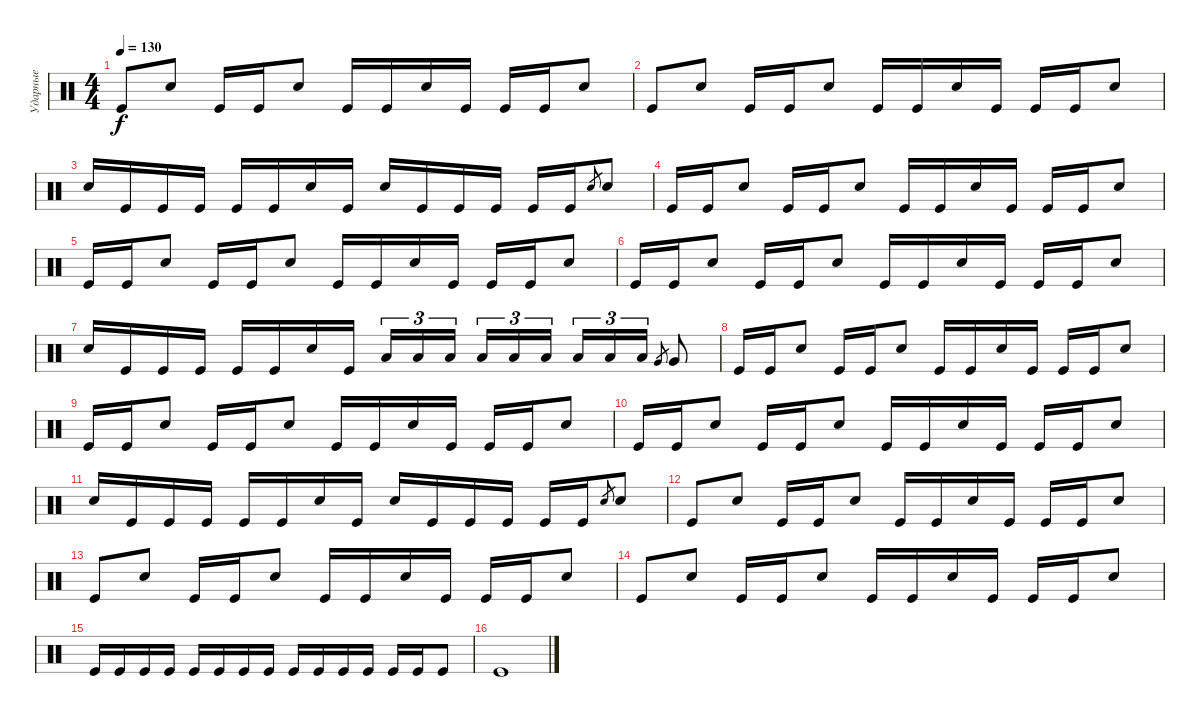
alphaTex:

\track ("Ударные" "Ударные") {instrument percussion}
\staff {score}
\articulation defaults
\ts (4 4)
\tempo 130
\clef neutral
\ks c "Kick (hit)".8{dy f} "Snare (hit) 2".8 "Kick (hit)".16 "Kick (hit)".16 "Snare (hit) 2".8 "Kick (hit)".16 "Kick (hit)".16 "Snare (hit) 2".16 "Kick (hit)".16 "Kick (hit)".16 "Kick (hit)".16 "Snare (hit) 2".8
|
"Kick (hit)".8 "Snare (hit) 2".8 "Kick (hit)".16 "Kick (hit)".16 "Snare (hit) 2".8 "Kick (hit)".16 "Kick (hit)".16 "Snare (hit) 2".16 "Kick (hit)".16 "Kick (hit)".16 "Kick (hit)".16 "Snare (hit) 2".8 |
"Snare (hit) 2".16 "Kick (hit)".16 "Kick (hit)".16 "Kick (hit)".16 "Kick (hit)".16 "Kick (hit)".16 "Snare (hit) 2".16 "Kick (hit)".16 "Snare (hit) 2".16 "Kick (hit)".16 "Kick (hit)".16 "Kick (hit)".16 "Kick (hit)".16 "Kick (hit)".16 "Snare (hit) 2".8{gr} "Snare (hit) 2".8 |
"Kick (hit)".16 "Kick (hit)".16 "Snare (hit) 2".8 "Kick (hit)".16 "Kick (hit)".16 "Snare (hit) 2".8 "Kick (hit)".16 "Kick (hit)".16 "Snare (hit) 2".16 "Kick (hit)".16 "Kick (hit)".16 "Kick (hit)".16 "Snare (hit) 2".8 |
"Kick (hit)".16 "Kick (hit)".16 "Snare (hit) 2".8 "Kick (hit)".16 "Kick (hit)".16 "Snare (hit) 2".8 "Kick (hit)".16 "Kick (hit)".16 "Snare (hit) 2".16 "Kick (hit)".16 "Kick (hit)".16 "Kick (hit)".16 "Snare (hit) 2".8 |
"Kick (hit)".16 "Kick (hit)".16 "Snare (hit) 2".8 "Kick (hit)".16 "Kick (hit)".16 "Snare (hit) 2".8 "Kick (hit)".16 "Kick (hit)".16 "Snare (hit) 2".16 "Kick (hit)".16 "Kick (hit)".16 "Kick (hit)".16 "Snare (hit) 2".8 |
"Snare (hit) 2".16 "Kick (hit)".16 "Kick (hit)".16 "Kick (hit)".16 "Kick (hit)".16 "Kick (hit)".16 "Snare (hit) 2".16 "Kick (hit)".16 "Low Tom (hit)".16{tu (3 2)} "Low Tom (hit)".16{tu (3 2)} "Low Tom (hit)".16{tu (3 2) beam splitsecondary} "Low Tom (hit)".16{tu (3 2)} "Low Tom (hit)".16{tu (3 2)} "Low Tom (hit)".16{tu (3 2)} "Low Tom (hit)".16{tu (3 2)} "Low Tom (hit)".16{tu (3 2)} "Low Tom (hit)".16{tu (3 2)} "Very Low Tom (hit)".8{gr} "Very Low Tom (hit)".8 |
"Kick (hit)".16 "Kick (hit)".16 "Snare (hit) 2".8 "Kick (hit)".16 "Kick (hit)".16 "Snare (hit) 2".8 "Kick (hit)".16 "Kick (hit)".16 "Snare (hit) 2".16 "Kick (hit)".16 "Kick (hit)".16 "Kick (hit)".16 "Snare (hit) 2".8 |
"Kick (hit)".16 "Kick (hit)".16 "Snare (hit) 2".8 "Kick (hit)".16 "Kick (hit)".16 "Snare (hit) 2".8 "Kick (hit)".16 "Kick (hit)".16 "Snare (hit) 2".16 "Kick (hit)".16 "Kick (hit)".16 "Kick (hit)".16 "Snare (hit) 2".8 |
"Kick (hit)".16 "Kick (hit)".16 "Snare (hit) 2".8 "Kick (hit)".16 "Kick (hit)".16 "Snare (hit) 2".8 "Kick (hit)".16 "Kick (hit)".16 "Snare (hit) 2".16 "Kick (hit)".16 "Kick (hit)".16 "Kick (hit)".16 "Snare (hit) 2".8 |
"Snare (hit) 2".16 "Kick (hit)".16 "Kick (hit)".16 "Kick (hit)".16 "Kick (hit)".16 "Kick (hit)".16 "Snare (hit) 2".16 "Kick (hit)".16 "Snare (hit) 2".16 "Kick (hit)".16 "Kick (hit)".16 "Kick (hit)".16 "Kick (hit)".16 "Kick (hit)".16 "Snare (hit) 2".8{gr} "Snare (hit) 2".8 |
"Kick (hit)".8 "Snare (hit) 2".8 "Kick (hit)".16 "Kick (hit)".16 "Snare (hit) 2".8 "Kick (hit)".16 "Kick (hit)".16 "Snare (hit) 2".16 "Kick (hit)".16 "Kick (hit)".16 "Kick (hit)".16 "Snare (hit) 2".8 |
"Kick (hit)".8 "Snare (hit) 2".8 "Kick (hit)".16 "Kick (hit)".16 "Snare (hit) 2".8 "Kick (hit)".16 "Kick (hit)".16 "Snare (hit) 2".16 "Kick (hit)".16 "Kick (hit)".16 "Kick (hit)".16 "Snare (hit) 2".8 |
"Kick (hit)".8 "Snare (hit) 2".8 "Kick (hit)".16 "Kick (hit)".16 "Snare (hit) 2".8 "Kick (hit)".16 "Kick (hit)".16 "Snare (hit) 2".16 "Kick (hit)".16 "Kick (hit)".16 "Kick (hit)".16 "Snare (hit) 2".8 |
"Kick (hit)".16 "Kick (hit)".16 "Kick (hit)".16 "Kick (hit)".16 "Kick (hit)".16 "Kick (hit)".16 "Kick (hit)".16 "Kick (hit)".16 "Kick (hit)".16 "Kick (hit)".16 "Kick (hit)".16 "Kick (hit)".16 "Kick (hit)".16 "Kick (hit)".16 "Kick (hit)".8 |
"Kick (hit)".1
